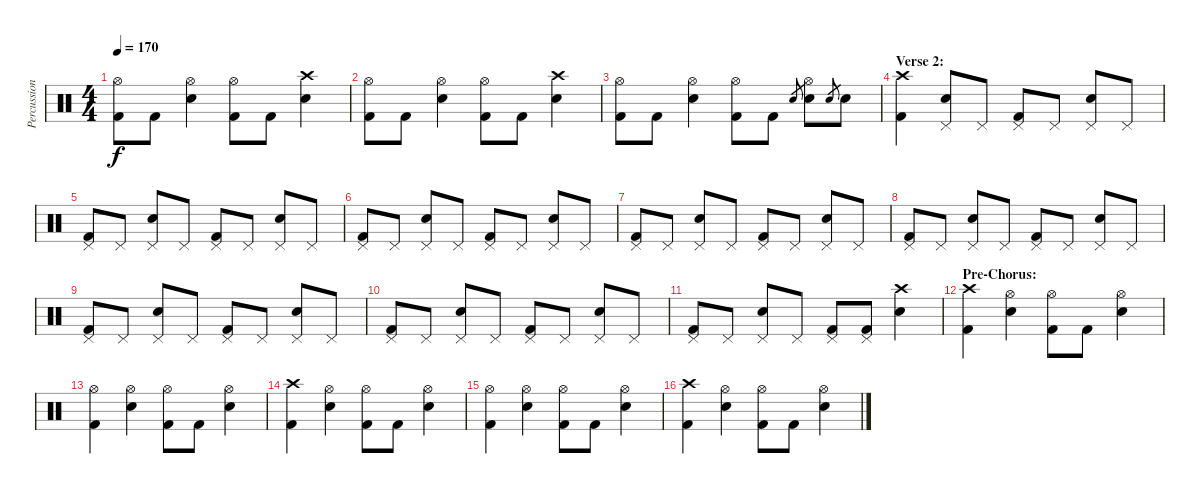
\track ("Percussion" "Percussion") {instrument percussion}
\staff {score}
\articulation defaults
\ts (4 4)
\tempo 170
\clef neutral
\ks c
("Hi-Hat (open)" "Kick (hit) 2").8{dy f} "Kick (hit) 2".8 ("Hi-Hat (open)" "Snare (hit) 2").4 ("Hi-Hat (open)" "Kick (hit) 2").8 "Kick (hit) 2".8 ("Crash high (hit)" "Snare (hit) 2").4 |
("Hi-Hat (open)" "Kick (hit) 2").8 "Kick (hit) 2".8 ("Hi-Hat (open)" "Snare (hit) 2").4 ("Hi-Hat (open)" "Kick (hit) 2").8 "Kick (hit) 2".8 ("Crash high (hit)" "Snare (hit) 2").4 |
("Hi-Hat (open)" "Kick (hit) 2").8 "Kick (hit) 2".8 ("Hi-Hat (open)" "Snare (hit) 2").4 ("Hi-Hat (open)" "Kick (hit) 2").8 "Kick (hit) 2".8 "Snare (hit) 2".8{gr} ("Hi-Hat (open)" "Snare (hit) 2").8 "Snare (hit) 2".8{gr} "Snare (hit) 2".8 |
\section ("" "Verse 2:")
("Crash high (hit)" "Kick (hit) 2").4 ("Pedal Hi-Hat (hit)" "Snare (hit) 2").8 "Pedal Hi-Hat (hit)".8 ("Pedal Hi-Hat (hit)" "Kick (hit) 2").8 "Pedal Hi-Hat (hit)".8 ("Pedal Hi-Hat (hit)" "Snare (hit) 2").8 "Pedal Hi-Hat (hit)".8 |
("Pedal Hi-Hat (hit)" "Kick (hit) 2").8 "Pedal Hi-Hat (hit)".8 ("Pedal Hi-Hat (hit)" "Snare (hit) 2").8 "Pedal Hi-Hat (hit)".8 ("Pedal Hi-Hat (hit)" "Kick (hit) 2").8 "Pedal Hi-Hat (hit)".8 ("Pedal Hi-Hat (hit)" "Snare (hit) 2").8 "Pedal Hi-Hat (hit)".8 |
("Pedal Hi-Hat (hit)" "Kick (hit) 2").8 "Pedal Hi-Hat (hit)".8 ("Pedal Hi-Hat (hit)" "Snare (hit) 2").8 "Pedal Hi-Hat (hit)".8 ("Pedal Hi-Hat (hit)" "Kick (hit) 2").8 "Pedal Hi-Hat (hit)".8 ("Pedal Hi-Hat (hit)" "Snare (hit) 2").8 "Pedal Hi-Hat (hit)".8 |
("Pedal Hi-Hat (hit)" "Kick (hit) 2").8 "Pedal Hi-Hat (hit)".8 ("Pedal Hi-Hat (hit)" "Snare (hit) 2").8 "Pedal Hi-Hat (hit)".8 ("Pedal Hi-Hat (hit)" "Kick (hit) 2").8 "Pedal Hi-Hat (hit)".8 ("Pedal Hi-Hat (hit)" "Snare (hit) 2").8 "Pedal Hi-Hat (hit)".8 |
("Pedal Hi-Hat (hit)" "Kick (hit) 2").8 "Pedal Hi-Hat (hit)".8 ("Pedal Hi-Hat (hit)" "Snare (hit) 2").8 "Pedal Hi-Hat (hit)".8 ("Pedal Hi-Hat (hit)" "Kick (hit) 2").8 "Pedal Hi-Hat (hit)".8 ("Pedal Hi-Hat (hit)" "Snare (hit) 2").8 "Pedal Hi-Hat (hit)".8 |
("Pedal Hi-Hat (hit)" "Kick (hit) 2").8 "Pedal Hi-Hat (hit)".8 ("Pedal Hi-Hat (hit)" "Snare (hit) 2").8 "Pedal Hi-Hat (hit)".8 ("Pedal Hi-Hat (hit)" "Kick (hit) 2").8 "Pedal Hi-Hat (hit)".8 ("Pedal Hi-Hat (hit)" "Snare (hit) 2").8 "Pedal Hi-Hat (hit)".8 |
("Pedal Hi-Hat (hit)" "Kick (hit) 2").8 "Pedal Hi-Hat (hit)".8 ("Pedal Hi-Hat (hit)" "Snare (hit) 2").8 "Pedal Hi-Hat (hit)".8 ("Pedal Hi-Hat (hit)" "Kick (hit) 2").8 "Pedal Hi-Hat (hit)".8 ("Pedal Hi-Hat (hit)" "Snare (hit) 2").8 "Pedal Hi-Hat (hit)".8 |
("Pedal Hi-Hat (hit)" "Kick (hit) 2").8 "Pedal Hi-Hat (hit)".8 ("Pedal Hi-Hat (hit)" "Snare (hit) 2").8 "Pedal Hi-Hat (hit)".8 ("Pedal Hi-Hat (hit)" "Kick (hit) 2").8 ("Pedal Hi-Hat (hit)" "Kick (hit) 2").8 ("Crash high (hit)" "Snare (hit) 2").4 |
\section ("" "Pre-Chorus:")
("Crash high (hit)" "Kick (hit) 2").4 ("Hi-Hat (open)" "Snare (hit) 2").4 ("Hi-Hat (open)" "Kick (hit) 2").8 "Kick (hit) 2".8 ("Hi-Hat (open)" "Snare (hit) 2").4 |
("Hi-Hat (open)" "Kick (hit) 2").4 ("Hi-Hat (open)" "Snare (hit) 2").4 ("Hi-Hat (open)" "Kick (hit) 2").8 "Kick (hit) 2".8 ("Hi-Hat (open)" "Snare (hit) 2").4 |
("Crash high (hit)" "Kick (hit) 2").4 ("Hi-Hat (open)" "Snare (hit) 2").4 ("Hi-Hat (open)" "Kick (hit) 2").8 "Kick (hit) 2".8 ("Hi-Hat (open)" "Snare (hit) 2").4 |
("Hi-Hat (open)" "Kick (hit) 2").4 ("Hi-Hat (open)" "Snare (hit) 2").4 ("Hi-Hat (open)" "Kick (hit) 2").8 "Kick (hit) 2".8 ("Hi-Hat (open)" "Snare (hit) 2").4 |
("Crash high (hit)" "Kick (hit) 2").4 ("Hi-Hat (open)" "Snare (hit) 2").4 ("Hi-Hat (open)" "Kick (hit) 2").8 "Kick (hit) 2".8 ("Hi-Hat (open)" "Snare (hit) 2").4
